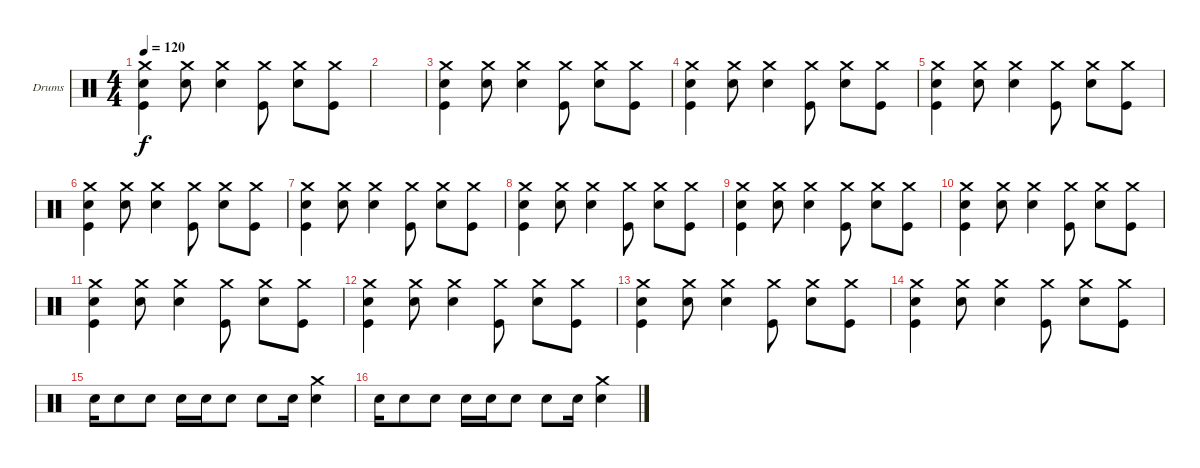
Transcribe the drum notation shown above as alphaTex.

\bracketExtendMode groupsimilarinstruments
\firstSystemTrackNameOrientation horizontal
\otherSystemsTrackNameOrientation horizontal
\track ("Drumkit" "Drums") {instrument percussion}
\staff {score}
\articulation defaults
\ts (4 4)
\tempo 120
\clef neutral
\ks c
("Crash medium (hit)" "Snare (hit) 2" "Kick (hit)").4{dy f} ("Crash medium (hit)" "Snare (hit) 2").8 ("Crash medium (hit)" "Snare (hit) 2").4 ("Crash medium (hit)" "Kick (hit)").8 ("Crash medium (hit)" "Snare (hit) 2").8 ("Crash medium (hit)" "Kick (hit)").8 |
|
("Crash medium (hit)" "Snare (hit) 2" "Kick (hit)").4 ("Crash medium (hit)" "Snare (hit) 2").8 ("Crash medium (hit)" "Snare (hit) 2").4 ("Crash medium (hit)" "Kick (hit)").8 ("Crash medium (hit)" "Snare (hit) 2").8 ("Crash medium (hit)" "Kick (hit)").8 |
("Crash medium (hit)" "Snare (hit) 2" "Kick (hit)").4 ("Crash medium (hit)" "Snare (hit) 2").8 ("Crash medium (hit)" "Snare (hit) 2").4 ("Crash medium (hit)" "Kick (hit)").8 ("Crash medium (hit)" "Snare (hit) 2").8 ("Crash medium (hit)" "Kick (hit)").8 |
("Crash medium (hit)" "Snare (hit) 2" "Kick (hit)").4 ("Crash medium (hit)" "Snare (hit) 2").8 ("Crash medium (hit)" "Snare (hit) 2").4 ("Crash medium (hit)" "Kick (hit)").8 ("Crash medium (hit)" "Snare (hit) 2").8 ("Crash medium (hit)" "Kick (hit)").8 |
("Crash medium (hit)" "Snare (hit) 2" "Kick (hit)").4 ("Crash medium (hit)" "Snare (hit) 2").8 ("Crash medium (hit)" "Snare (hit) 2").4 ("Crash medium (hit)" "Kick (hit)").8 ("Crash medium (hit)" "Snare (hit) 2").8 ("Crash medium (hit)" "Kick (hit)").8 |
("Crash medium (hit)" "Snare (hit) 2" "Kick (hit)").4 ("Crash medium (hit)" "Snare (hit) 2").8 ("Crash medium (hit)" "Snare (hit) 2").4 ("Crash medium (hit)" "Kick (hit)").8 ("Crash medium (hit)" "Snare (hit) 2").8 ("Crash medium (hit)" "Kick (hit)").8 |
("Crash medium (hit)" "Snare (hit) 2" "Kick (hit)").4 ("Crash medium (hit)" "Snare (hit) 2").8 ("Crash medium (hit)" "Snare (hit) 2").4 ("Crash medium (hit)" "Kick (hit)").8 ("Crash medium (hit)" "Snare (hit) 2").8 ("Crash medium (hit)" "Kick (hit)").8 |
("Crash medium (hit)" "Snare (hit) 2" "Kick (hit)").4 ("Crash medium (hit)" "Snare (hit) 2").8 ("Crash medium (hit)" "Snare (hit) 2").4 ("Crash medium (hit)" "Kick (hit)").8 ("Crash medium (hit)" "Snare (hit) 2").8 ("Crash medium (hit)" "Kick (hit)").8 |
("Crash medium (hit)" "Snare (hit) 2" "Kick (hit)").4 ("Crash medium (hit)" "Snare (hit) 2").8 ("Crash medium (hit)" "Snare (hit) 2").4 ("Crash medium (hit)" "Kick (hit)").8 ("Crash medium (hit)" "Snare (hit) 2").8 ("Crash medium (hit)" "Kick (hit)").8 |
("Crash medium (hit)" "Snare (hit) 2" "Kick (hit)").4 ("Crash medium (hit)" "Snare (hit) 2").8 ("Crash medium (hit)" "Snare (hit) 2").4 ("Crash medium (hit)" "Kick (hit)").8 ("Crash medium (hit)" "Snare (hit) 2").8 ("Crash medium (hit)" "Kick (hit)").8 |
("Crash medium (hit)" "Snare (hit) 2" "Kick (hit)").4 ("Crash medium (hit)" "Snare (hit) 2").8 ("Crash medium (hit)" "Snare (hit) 2").4 ("Crash medium (hit)" "Kick (hit)").8 ("Crash medium (hit)" "Snare (hit) 2").8 ("Crash medium (hit)" "Kick (hit)").8 |
("Crash medium (hit)" "Snare (hit) 2" "Kick (hit)").4 ("Crash medium (hit)" "Snare (hit) 2").8 ("Crash medium (hit)" "Snare (hit) 2").4 ("Crash medium (hit)" "Kick (hit)").8 ("Crash medium (hit)" "Snare (hit) 2").8 ("Crash medium (hit)" "Kick (hit)").8 |
("Crash medium (hit)" "Snare (hit) 2" "Kick (hit)").4 ("Crash medium (hit)" "Snare (hit) 2").8 ("Crash medium (hit)" "Snare (hit) 2").4 ("Crash medium (hit)" "Kick (hit)").8 ("Crash medium (hit)" "Snare (hit) 2").8 ("Crash medium (hit)" "Kick (hit)").8 |
"Snare (hit) 2".16 "Snare (hit) 2".8 "Snare (hit) 2".8 "Snare (hit) 2".16 "Snare (hit) 2".16 "Snare (hit) 2".8 "Snare (hit) 2".8 "Snare (hit) 2".16 ("Crash medium (hit)" "Snare (hit) 2").4 |
"Snare (hit) 2".16 "Snare (hit) 2".8 "Snare (hit) 2".8 "Snare (hit) 2".16 "Snare (hit) 2".16 "Snare (hit) 2".8 "Snare (hit) 2".8 "Snare (hit) 2".16 ("Crash medium (hit)" "Snare (hit) 2").4
